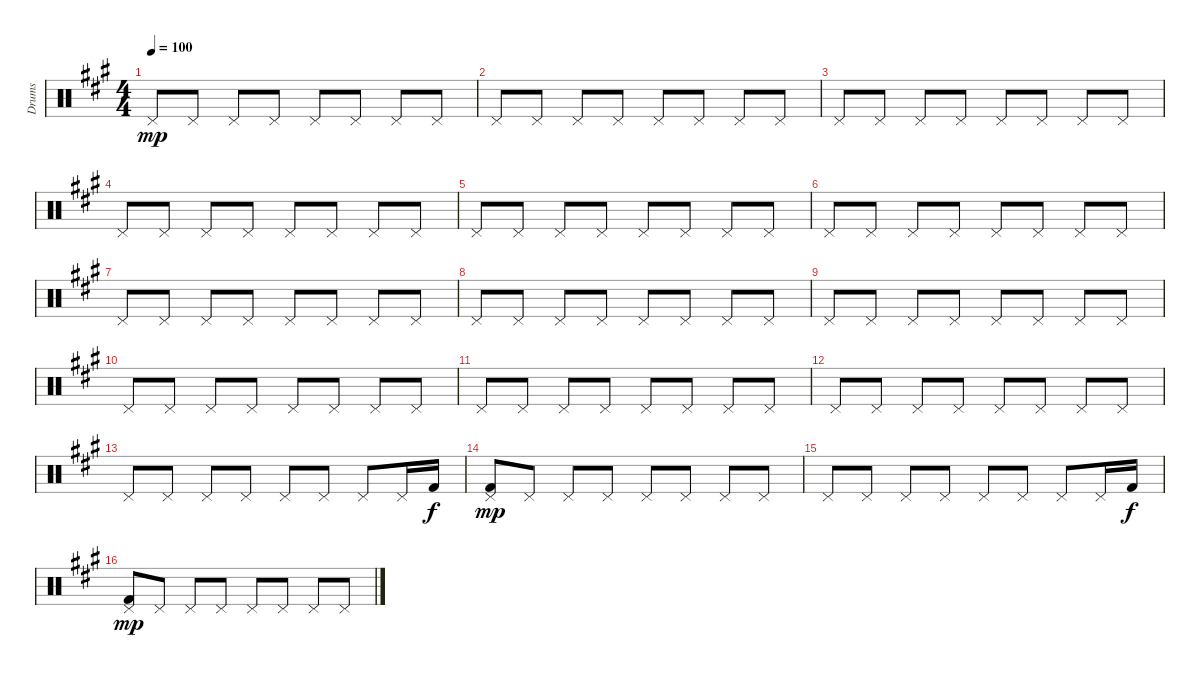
\track ("Drums" "Drums") {instrument percussion}
\staff {score}
\articulation defaults
\ts (4 4)
\tempo 100
\clef neutral
\ks f#minor "Pedal Hi-Hat (hit)".8{dy mp} "Pedal Hi-Hat (hit)".8 "Pedal Hi-Hat (hit)".8 "Pedal Hi-Hat (hit)".8 "Pedal Hi-Hat (hit)".8 "Pedal Hi-Hat (hit)".8 "Pedal Hi-Hat (hit)".8 "Pedal Hi-Hat (hit)".8
|
"Pedal Hi-Hat (hit)".8 "Pedal Hi-Hat (hit)".8 "Pedal Hi-Hat (hit)".8 "Pedal Hi-Hat (hit)".8 "Pedal Hi-Hat (hit)".8 "Pedal Hi-Hat (hit)".8 "Pedal Hi-Hat (hit)".8 "Pedal Hi-Hat (hit)".8 |
"Pedal Hi-Hat (hit)".8 "Pedal Hi-Hat (hit)".8 "Pedal Hi-Hat (hit)".8 "Pedal Hi-Hat (hit)".8 "Pedal Hi-Hat (hit)".8 "Pedal Hi-Hat (hit)".8 "Pedal Hi-Hat (hit)".8 "Pedal Hi-Hat (hit)".8 |
"Pedal Hi-Hat (hit)".8 "Pedal Hi-Hat (hit)".8 "Pedal Hi-Hat (hit)".8 "Pedal Hi-Hat (hit)".8 "Pedal Hi-Hat (hit)".8 "Pedal Hi-Hat (hit)".8 "Pedal Hi-Hat (hit)".8 "Pedal Hi-Hat (hit)".8 |
"Pedal Hi-Hat (hit)".8 "Pedal Hi-Hat (hit)".8 "Pedal Hi-Hat (hit)".8 "Pedal Hi-Hat (hit)".8 "Pedal Hi-Hat (hit)".8 "Pedal Hi-Hat (hit)".8 "Pedal Hi-Hat (hit)".8 "Pedal Hi-Hat (hit)".8 |
"Pedal Hi-Hat (hit)".8 "Pedal Hi-Hat (hit)".8 "Pedal Hi-Hat (hit)".8 "Pedal Hi-Hat (hit)".8 "Pedal Hi-Hat (hit)".8 "Pedal Hi-Hat (hit)".8 "Pedal Hi-Hat (hit)".8 "Pedal Hi-Hat (hit)".8 |
"Pedal Hi-Hat (hit)".8 "Pedal Hi-Hat (hit)".8 "Pedal Hi-Hat (hit)".8 "Pedal Hi-Hat (hit)".8 "Pedal Hi-Hat (hit)".8 "Pedal Hi-Hat (hit)".8 "Pedal Hi-Hat (hit)".8 "Pedal Hi-Hat (hit)".8 |
"Pedal Hi-Hat (hit)".8 "Pedal Hi-Hat (hit)".8 "Pedal Hi-Hat (hit)".8 "Pedal Hi-Hat (hit)".8 "Pedal Hi-Hat (hit)".8 "Pedal Hi-Hat (hit)".8 "Pedal Hi-Hat (hit)".8 "Pedal Hi-Hat (hit)".8 |
"Pedal Hi-Hat (hit)".8 "Pedal Hi-Hat (hit)".8 "Pedal Hi-Hat (hit)".8 "Pedal Hi-Hat (hit)".8 "Pedal Hi-Hat (hit)".8 "Pedal Hi-Hat (hit)".8 "Pedal Hi-Hat (hit)".8 "Pedal Hi-Hat (hit)".8 |
"Pedal Hi-Hat (hit)".8 "Pedal Hi-Hat (hit)".8 "Pedal Hi-Hat (hit)".8 "Pedal Hi-Hat (hit)".8 "Pedal Hi-Hat (hit)".8 "Pedal Hi-Hat (hit)".8 "Pedal Hi-Hat (hit)".8 "Pedal Hi-Hat (hit)".8 |
"Pedal Hi-Hat (hit)".8 "Pedal Hi-Hat (hit)".8 "Pedal Hi-Hat (hit)".8 "Pedal Hi-Hat (hit)".8 "Pedal Hi-Hat (hit)".8 "Pedal Hi-Hat (hit)".8 "Pedal Hi-Hat (hit)".8 "Pedal Hi-Hat (hit)".8 |
"Pedal Hi-Hat (hit)".8 "Pedal Hi-Hat (hit)".8 "Pedal Hi-Hat (hit)".8 "Pedal Hi-Hat (hit)".8 "Pedal Hi-Hat (hit)".8 "Pedal Hi-Hat (hit)".8 "Pedal Hi-Hat (hit)".8 "Pedal Hi-Hat (hit)".8 |
"Pedal Hi-Hat (hit)".8 "Pedal Hi-Hat (hit)".8 "Pedal Hi-Hat (hit)".8 "Pedal Hi-Hat (hit)".8 "Pedal Hi-Hat (hit)".8 "Pedal Hi-Hat (hit)".8 "Pedal Hi-Hat (hit)".8 "Pedal Hi-Hat (hit)".16 "Kick (hit) 2".16{dy f} |
("Pedal Hi-Hat (hit)" "Kick (hit) 2").8{dy mp} "Pedal Hi-Hat (hit)".8 "Pedal Hi-Hat (hit)".8 "Pedal Hi-Hat (hit)".8 "Pedal Hi-Hat (hit)".8 "Pedal Hi-Hat (hit)".8 "Pedal Hi-Hat (hit)".8 "Pedal Hi-Hat (hit)".8 |
"Pedal Hi-Hat (hit)".8 "Pedal Hi-Hat (hit)".8 "Pedal Hi-Hat (hit)".8 "Pedal Hi-Hat (hit)".8 "Pedal Hi-Hat (hit)".8 "Pedal Hi-Hat (hit)".8 "Pedal Hi-Hat (hit)".8 "Pedal Hi-Hat (hit)".16 "Kick (hit) 2".16{dy f} |
("Pedal Hi-Hat (hit)" "Kick (hit) 2").8{dy mp} "Pedal Hi-Hat (hit)".8 "Pedal Hi-Hat (hit)".8 "Pedal Hi-Hat (hit)".8 "Pedal Hi-Hat (hit)".8 "Pedal Hi-Hat (hit)".8 "Pedal Hi-Hat (hit)".8 "Pedal Hi-Hat (hit)".8
